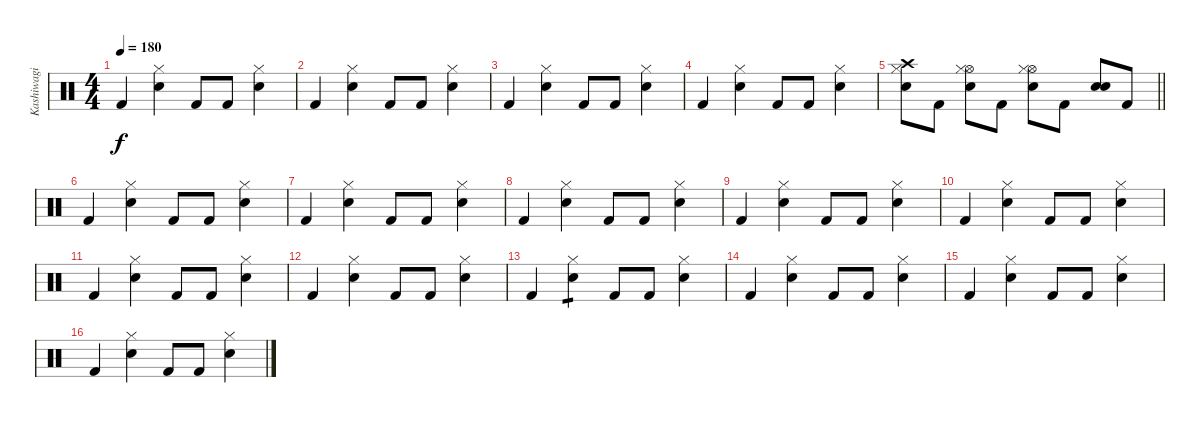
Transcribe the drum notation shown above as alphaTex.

\track ("Kashiwagi Yuki" "Kashiwagi ") {instrument percussion}
\staff {score}
\articulation defaults
\ts (4 4)
\tempo 180
\clef neutral
\ks c "Kick (hit) 2".4{dy f}
("Hi-Hat (closed)" "Electric Snare (hit)").4 "Kick (hit) 2".8 "Kick (hit) 2".8 ("Hi-Hat (closed)" "Electric Snare (hit)").4 |
"Kick (hit) 2".4 ("Hi-Hat (closed)" "Electric Snare (hit)").4 "Kick (hit) 2".8 "Kick (hit) 2".8 ("Hi-Hat (closed)" "Electric Snare (hit)").4 |
"Kick (hit) 2".4 ("Hi-Hat (closed)" "Electric Snare (hit)").4 "Kick (hit) 2".8 "Kick (hit) 2".8 ("Hi-Hat (closed)" "Electric Snare (hit)").4 |
"Kick (hit) 2".4 ("Hi-Hat (closed)" "Electric Snare (hit)").4 "Kick (hit) 2".8 "Kick (hit) 2".8 ("Hi-Hat (closed)" "Electric Snare (hit)").4 |
\barLineRight lightlight
("Crash high (hit)" "Hi-Hat (closed)" "Electric Snare (hit)").8 "Kick (hit) 2".8 ("Hi-Hat (open)" "Hi-Hat (closed)" "Electric Snare (hit)").8 "Kick (hit) 2".8 ("Hi-Hat (open)" "Hi-Hat (closed)" "Electric Snare (hit)").8 "Kick (hit) 2".8 ("Electric Snare (hit)" "Electric Snare (hit)").8 "Kick (hit) 2".8 |
"Kick (hit) 2".4 ("Hi-Hat (closed)" "Electric Snare (hit)").4 "Kick (hit) 2".8 "Kick (hit) 2".8 ("Hi-Hat (closed)" "Electric Snare (hit)").4 |
"Kick (hit) 2".4 ("Hi-Hat (closed)" "Electric Snare (hit)").4 "Kick (hit) 2".8 "Kick (hit) 2".8 ("Hi-Hat (closed)" "Electric Snare (hit)").4 |
"Kick (hit) 2".4 ("Hi-Hat (closed)" "Electric Snare (hit)").4 "Kick (hit) 2".8 "Kick (hit) 2".8 ("Hi-Hat (closed)" "Electric Snare (hit)").4 |
"Kick (hit) 2".4 ("Hi-Hat (closed)" "Electric Snare (hit)").4 "Kick (hit) 2".8 "Kick (hit) 2".8 ("Hi-Hat (closed)" "Electric Snare (hit)").4 |
"Kick (hit) 2".4 ("Hi-Hat (closed)" "Electric Snare (hit)").4 "Kick (hit) 2".8 "Kick (hit) 2".8 ("Hi-Hat (closed)" "Electric Snare (hit)").4 |
"Kick (hit) 2".4 ("Hi-Hat (closed)" "Electric Snare (hit)").4 "Kick (hit) 2".8 "Kick (hit) 2".8 ("Hi-Hat (closed)" "Electric Snare (hit)").4 |
"Kick (hit) 2".4 ("Hi-Hat (closed)" "Electric Snare (hit)").4 "Kick (hit) 2".8 "Kick (hit) 2".8 ("Hi-Hat (closed)" "Electric Snare (hit)").4 |
"Kick (hit) 2".4 ("Hi-Hat (closed)" "Electric Snare (hit)").4{tp 1} "Kick (hit) 2".8 "Kick (hit) 2".8 ("Hi-Hat (closed)" "Electric Snare (hit)").4 |
"Kick (hit) 2".4 ("Hi-Hat (closed)" "Electric Snare (hit)").4 "Kick (hit) 2".8 "Kick (hit) 2".8 ("Hi-Hat (closed)" "Electric Snare (hit)").4 |
"Kick (hit) 2".4 ("Hi-Hat (closed)" "Electric Snare (hit)").4 "Kick (hit) 2".8 "Kick (hit) 2".8 ("Hi-Hat (closed)" "Electric Snare (hit)").4 |
"Kick (hit) 2".4 ("Hi-Hat (closed)" "Electric Snare (hit)").4 "Kick (hit) 2".8 "Kick (hit) 2".8 ("Hi-Hat (closed)" "Electric Snare (hit)").4
